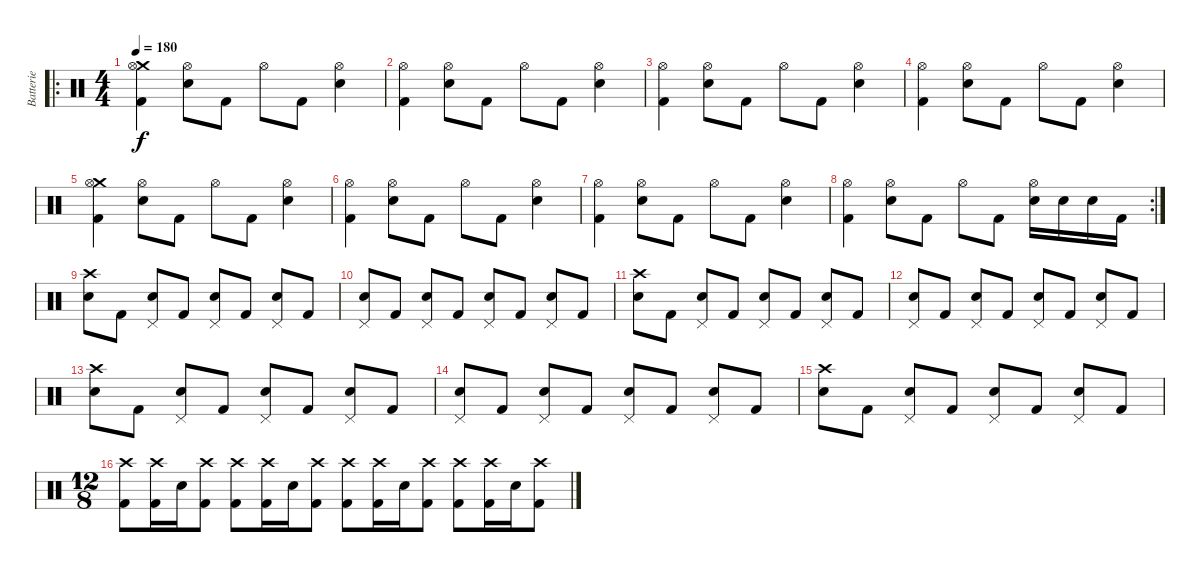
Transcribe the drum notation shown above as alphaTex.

\track ("Batterie" "Batterie") {instrument percussion}
\staff {score}
\articulation defaults
\ro
\ts (4 4)
\tempo 180
\clef neutral
\ks c
("Crash medium (hit)" "Hi-Hat (open)" "Kick (hit) 2").4{dy f} ("Hi-Hat (open)" "Electric Snare (hit)").8 "Kick (hit) 2".8 "Hi-Hat (open)".8 "Kick (hit) 2".8 ("Hi-Hat (open)" "Electric Snare (hit)").4 |
("Hi-Hat (open)" "Kick (hit) 2").4 ("Hi-Hat (open)" "Electric Snare (hit)").8 "Kick (hit) 2".8 "Hi-Hat (open)".8 "Kick (hit) 2".8 ("Hi-Hat (open)" "Electric Snare (hit)").4 |
("Hi-Hat (open)" "Kick (hit) 2").4 ("Hi-Hat (open)" "Electric Snare (hit)").8 "Kick (hit) 2".8 "Hi-Hat (open)".8 "Kick (hit) 2".8 ("Hi-Hat (open)" "Electric Snare (hit)").4 |
("Hi-Hat (open)" "Kick (hit) 2").4 ("Hi-Hat (open)" "Electric Snare (hit)").8 "Kick (hit) 2".8 "Hi-Hat (open)".8 "Kick (hit) 2".8 ("Hi-Hat (open)" "Electric Snare (hit)").4 |
("Crash medium (hit)" "Hi-Hat (open)" "Kick (hit) 2").4 ("Hi-Hat (open)" "Electric Snare (hit)").8 "Kick (hit) 2".8 "Hi-Hat (open)".8 "Kick (hit) 2".8 ("Hi-Hat (open)" "Electric Snare (hit)").4 |
("Hi-Hat (open)" "Kick (hit) 2").4 ("Hi-Hat (open)" "Electric Snare (hit)").8 "Kick (hit) 2".8 "Hi-Hat (open)".8 "Kick (hit) 2".8 ("Hi-Hat (open)" "Electric Snare (hit)").4 |
("Hi-Hat (open)" "Kick (hit) 2").4 ("Hi-Hat (open)" "Electric Snare (hit)").8 "Kick (hit) 2".8 "Hi-Hat (open)".8 "Kick (hit) 2".8 ("Hi-Hat (open)" "Electric Snare (hit)").4 |
\rc 2
("Hi-Hat (open)" "Kick (hit) 2").4 ("Hi-Hat (open)" "Electric Snare (hit)").8 "Kick (hit) 2".8 "Hi-Hat (open)".8 "Kick (hit) 2".8 ("Hi-Hat (open)" "Electric Snare (hit)").16 "Electric Snare (hit)".16 "Electric Snare (hit)".16 "Kick (hit) 2".16 |
("Crash high (hit)" "Electric Snare (hit)").8 "Kick (hit) 2".8 ("Pedal Hi-Hat (hit)" "Electric Snare (hit)").8 "Kick (hit) 2".8 ("Pedal Hi-Hat (hit)" "Electric Snare (hit)").8 "Kick (hit) 2".8 ("Pedal Hi-Hat (hit)" "Electric Snare (hit)").8 "Kick (hit) 2".8 |
("Pedal Hi-Hat (hit)" "Electric Snare (hit)").8 "Kick (hit) 2".8 ("Pedal Hi-Hat (hit)" "Electric Snare (hit)").8 "Kick (hit) 2".8 ("Pedal Hi-Hat (hit)" "Electric Snare (hit)").8 "Kick (hit) 2".8 ("Pedal Hi-Hat (hit)" "Electric Snare (hit)").8 "Kick (hit) 2".8 |
("Crash high (hit)" "Electric Snare (hit)").8 "Kick (hit) 2".8 ("Pedal Hi-Hat (hit)" "Electric Snare (hit)").8 "Kick (hit) 2".8 ("Pedal Hi-Hat (hit)" "Electric Snare (hit)").8 "Kick (hit) 2".8 ("Pedal Hi-Hat (hit)" "Electric Snare (hit)").8 "Kick (hit) 2".8 |
("Pedal Hi-Hat (hit)" "Electric Snare (hit)").8 "Kick (hit) 2".8 ("Pedal Hi-Hat (hit)" "Electric Snare (hit)").8 "Kick (hit) 2".8 ("Pedal Hi-Hat (hit)" "Electric Snare (hit)").8 "Kick (hit) 2".8 ("Pedal Hi-Hat (hit)" "Electric Snare (hit)").8 "Kick (hit) 2".8 |
("Crash high (hit)" "Electric Snare (hit)").8 "Kick (hit) 2".8 ("Pedal Hi-Hat (hit)" "Electric Snare (hit)").8 "Kick (hit) 2".8 ("Pedal Hi-Hat (hit)" "Electric Snare (hit)").8 "Kick (hit) 2".8 ("Pedal Hi-Hat (hit)" "Electric Snare (hit)").8 "Kick (hit) 2".8 |
("Pedal Hi-Hat (hit)" "Electric Snare (hit)").8 "Kick (hit) 2".8 ("Pedal Hi-Hat (hit)" "Electric Snare (hit)").8 "Kick (hit) 2".8 ("Pedal Hi-Hat (hit)" "Electric Snare (hit)").8 "Kick (hit) 2".8 ("Pedal Hi-Hat (hit)" "Electric Snare (hit)").8 "Kick (hit) 2".8 |
("Crash high (hit)" "Electric Snare (hit)").8 "Kick (hit) 2".8 ("Pedal Hi-Hat (hit)" "Electric Snare (hit)").8 "Kick (hit) 2".8 ("Pedal Hi-Hat (hit)" "Electric Snare (hit)").8 "Kick (hit) 2".8 ("Pedal Hi-Hat (hit)" "Electric Snare (hit)").8 "Kick (hit) 2".8 |
\ts (12 8)
("Crash high (hit)" "Kick (hit) 2").8 ("Crash high (hit)" "Kick (hit) 2").16 "Electric Snare (hit)".16 ("Crash high (hit)" "Kick (hit) 2").8 ("Crash high (hit)" "Kick (hit) 2").8 ("Crash high (hit)" "Kick (hit) 2").16 "Electric Snare (hit)".16 ("Crash high (hit)" "Kick (hit) 2").8 ("Crash high (hit)" "Kick (hit) 2").8 ("Crash high (hit)" "Kick (hit) 2").16 "Electric Snare (hit)".16 ("Crash high (hit)" "Kick (hit) 2").8 ("Crash high (hit)" "Kick (hit) 2").8 ("Crash high (hit)" "Kick (hit) 2").16 "Electric Snare (hit)".16 ("Crash high (hit)" "Kick (hit) 2").8
